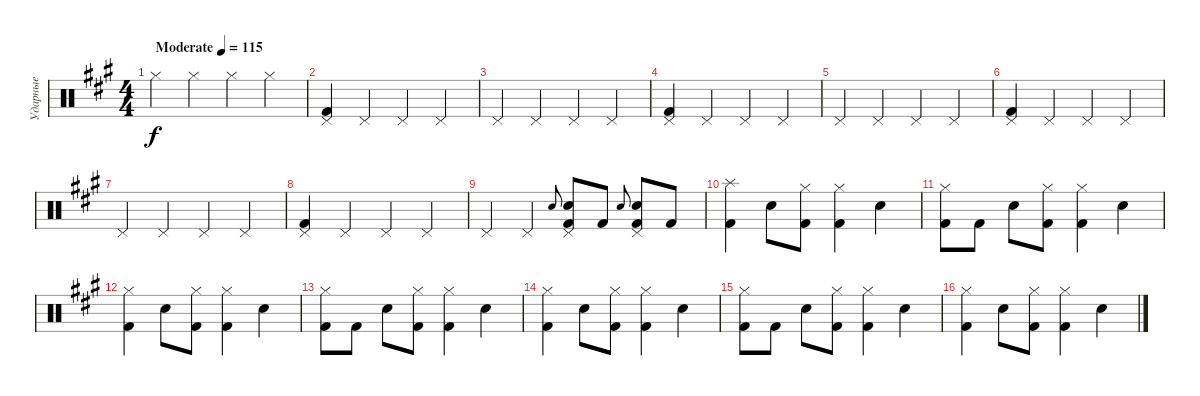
\track ("Ударные" "Ударные") {instrument percussion}
\staff {score}
\articulation defaults
\ts (4 4)
\tempo (115 "Moderate")
\clef neutral
\ks f#minor "Hi-Hat (closed)".4{dy f} "Hi-Hat (closed)".4 "Hi-Hat (closed)".4 "Hi-Hat (closed)".4
|
("Pedal Hi-Hat (hit)" "Kick (hit) 2").4 "Pedal Hi-Hat (hit)".4 "Pedal Hi-Hat (hit)".4 "Pedal Hi-Hat (hit)".4 |
"Pedal Hi-Hat (hit)".4 "Pedal Hi-Hat (hit)".4 "Pedal Hi-Hat (hit)".4 "Pedal Hi-Hat (hit)".4 |
("Pedal Hi-Hat (hit)" "Kick (hit) 2").4 "Pedal Hi-Hat (hit)".4 "Pedal Hi-Hat (hit)".4 "Pedal Hi-Hat (hit)".4 |
"Pedal Hi-Hat (hit)".4 "Pedal Hi-Hat (hit)".4 "Pedal Hi-Hat (hit)".4 "Pedal Hi-Hat (hit)".4 |
("Pedal Hi-Hat (hit)" "Kick (hit) 2").4 "Pedal Hi-Hat (hit)".4 "Pedal Hi-Hat (hit)".4 "Pedal Hi-Hat (hit)".4 |
"Pedal Hi-Hat (hit)".4 "Pedal Hi-Hat (hit)".4 "Pedal Hi-Hat (hit)".4 "Pedal Hi-Hat (hit)".4 |
("Pedal Hi-Hat (hit)" "Kick (hit) 2").4 "Pedal Hi-Hat (hit)".4 "Pedal Hi-Hat (hit)".4 "Pedal Hi-Hat (hit)".4 |
"Pedal Hi-Hat (hit)".4 "Pedal Hi-Hat (hit)".4 "Electric Snare (hit)".8{gr onbeat} ("Pedal Hi-Hat (hit)" "Kick (hit) 2" "Electric Snare (hit)").8 "Kick (hit) 2".8 "Electric Snare (hit)".8{gr onbeat} ("Pedal Hi-Hat (hit)" "Kick (hit) 2" "Electric Snare (hit)").8 "Kick (hit) 2".8 |
("Splash (hit)" "Kick (hit) 2").4 "Snare (hit) 2".8 ("Hi-Hat (closed)" "Kick (hit) 2").8 ("Hi-Hat (closed)" "Kick (hit) 2").4 "Snare (hit) 2".4 |
("Hi-Hat (closed)" "Kick (hit) 2").8 "Kick (hit) 2".8 "Snare (hit) 2".8 ("Hi-Hat (closed)" "Kick (hit) 2").8 ("Hi-Hat (closed)" "Kick (hit) 2").4 "Snare (hit) 2".4 |
("Hi-Hat (closed)" "Kick (hit) 2").4 "Snare (hit) 2".8 ("Hi-Hat (closed)" "Kick (hit) 2").8 ("Hi-Hat (closed)" "Kick (hit) 2").4 "Snare (hit) 2".4 |
("Hi-Hat (closed)" "Kick (hit) 2").8 "Kick (hit) 2".8 "Snare (hit) 2".8 ("Hi-Hat (closed)" "Kick (hit) 2").8 ("Hi-Hat (closed)" "Kick (hit) 2").4 "Snare (hit) 2".4 |
("Hi-Hat (closed)" "Kick (hit) 2").4 "Snare (hit) 2".8 ("Hi-Hat (closed)" "Kick (hit) 2").8 ("Hi-Hat (closed)" "Kick (hit) 2").4 "Snare (hit) 2".4 |
("Hi-Hat (closed)" "Kick (hit) 2").8 "Kick (hit) 2".8 "Snare (hit) 2".8 ("Hi-Hat (closed)" "Kick (hit) 2").8 ("Hi-Hat (closed)" "Kick (hit) 2").4 "Snare (hit) 2".4 |
("Hi-Hat (closed)" "Kick (hit) 2").4 "Snare (hit) 2".8 ("Hi-Hat (closed)" "Kick (hit) 2").8 ("Hi-Hat (closed)" "Kick (hit) 2").4 "Snare (hit) 2".4
